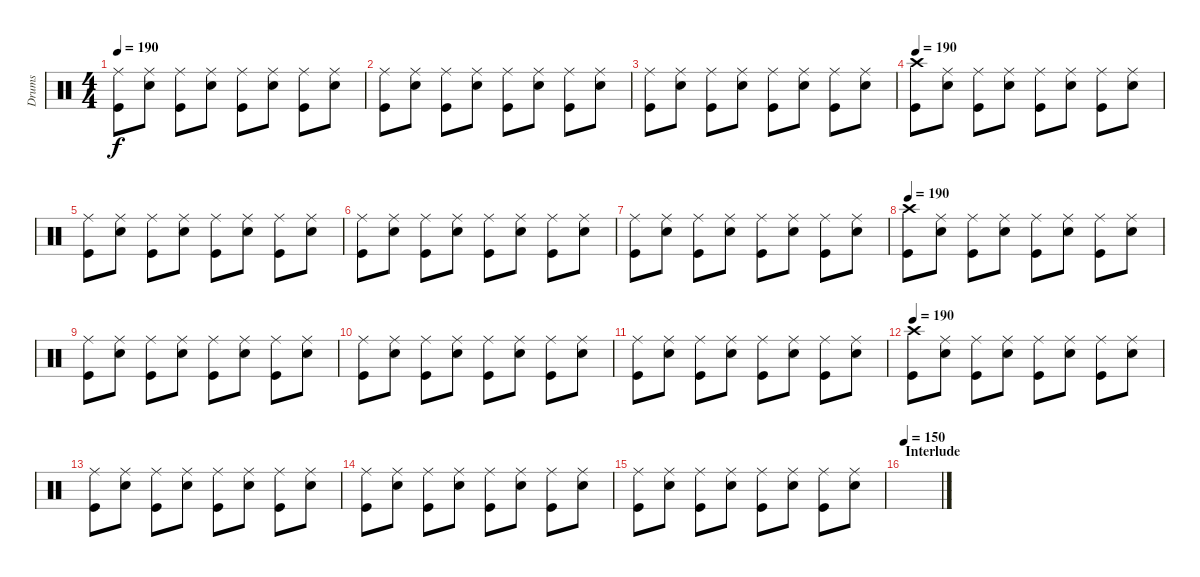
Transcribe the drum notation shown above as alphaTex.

\track ("Drums" "Drums") {instrument percussion}
\staff {score}
\articulation defaults
\ts (4 4)
\tempo 190
\clef neutral
\ks c
("Ride (middle)" "Kick (hit)").8{dy f} ("Ride (middle)" "Snare (hit) 2").8 ("Ride (middle)" "Kick (hit)").8 ("Ride (middle)" "Snare (hit) 2").8 ("Ride (middle)" "Kick (hit)").8 ("Ride (middle)" "Snare (hit) 2").8 ("Ride (middle)" "Kick (hit)").8 ("Ride (middle)" "Snare (hit) 2").8 |
("Ride (middle)" "Kick (hit)").8 ("Ride (middle)" "Snare (hit) 2").8 ("Ride (middle)" "Kick (hit)").8 ("Ride (middle)" "Snare (hit) 2").8 ("Ride (middle)" "Kick (hit)").8 ("Ride (middle)" "Snare (hit) 2").8 ("Ride (middle)" "Kick (hit)").8 ("Ride (middle)" "Snare (hit) 2").8 |
("Ride (middle)" "Kick (hit)").8 ("Ride (middle)" "Snare (hit) 2").8 ("Ride (middle)" "Kick (hit)").8 ("Ride (middle)" "Snare (hit) 2").8 ("Ride (middle)" "Kick (hit)").8 ("Ride (middle)" "Snare (hit) 2").8 ("Ride (middle)" "Kick (hit)").8 ("Ride (middle)" "Snare (hit) 2").8 |
\tempo 190
("Crash high (hit)" "Kick (hit)").8 ("Ride (middle)" "Snare (hit) 2").8 ("Ride (middle)" "Kick (hit)").8 ("Ride (middle)" "Snare (hit) 2").8 ("Ride (middle)" "Kick (hit)").8 ("Ride (middle)" "Snare (hit) 2").8 ("Ride (middle)" "Kick (hit)").8 ("Ride (middle)" "Snare (hit) 2").8 |
("Ride (middle)" "Kick (hit)").8 ("Ride (middle)" "Snare (hit) 2").8 ("Ride (middle)" "Kick (hit)").8 ("Ride (middle)" "Snare (hit) 2").8 ("Ride (middle)" "Kick (hit)").8 ("Ride (middle)" "Snare (hit) 2").8 ("Ride (middle)" "Kick (hit)").8 ("Ride (middle)" "Snare (hit) 2").8 |
("Ride (middle)" "Kick (hit)").8 ("Ride (middle)" "Snare (hit) 2").8 ("Ride (middle)" "Kick (hit)").8 ("Ride (middle)" "Snare (hit) 2").8 ("Ride (middle)" "Kick (hit)").8 ("Ride (middle)" "Snare (hit) 2").8 ("Ride (middle)" "Kick (hit)").8 ("Ride (middle)" "Snare (hit) 2").8 |
("Ride (middle)" "Kick (hit)").8 ("Ride (middle)" "Snare (hit) 2").8 ("Ride (middle)" "Kick (hit)").8 ("Ride (middle)" "Snare (hit) 2").8 ("Ride (middle)" "Kick (hit)").8 ("Ride (middle)" "Snare (hit) 2").8 ("Ride (middle)" "Kick (hit)").8 ("Ride (middle)" "Snare (hit) 2").8 |
\tempo 190
("Crash high (hit)" "Kick (hit)").8 ("Ride (middle)" "Snare (hit) 2").8 ("Ride (middle)" "Kick (hit)").8 ("Ride (middle)" "Snare (hit) 2").8 ("Ride (middle)" "Kick (hit)").8 ("Ride (middle)" "Snare (hit) 2").8 ("Ride (middle)" "Kick (hit)").8 ("Ride (middle)" "Snare (hit) 2").8 |
("Ride (middle)" "Kick (hit)").8 ("Ride (middle)" "Snare (hit) 2").8 ("Ride (middle)" "Kick (hit)").8 ("Ride (middle)" "Snare (hit) 2").8 ("Ride (middle)" "Kick (hit)").8 ("Ride (middle)" "Snare (hit) 2").8 ("Ride (middle)" "Kick (hit)").8 ("Ride (middle)" "Snare (hit) 2").8 |
("Ride (middle)" "Kick (hit)").8 ("Ride (middle)" "Snare (hit) 2").8 ("Ride (middle)" "Kick (hit)").8 ("Ride (middle)" "Snare (hit) 2").8 ("Ride (middle)" "Kick (hit)").8 ("Ride (middle)" "Snare (hit) 2").8 ("Ride (middle)" "Kick (hit)").8 ("Ride (middle)" "Snare (hit) 2").8 |
("Ride (middle)" "Kick (hit)").8 ("Ride (middle)" "Snare (hit) 2").8 ("Ride (middle)" "Kick (hit)").8 ("Ride (middle)" "Snare (hit) 2").8 ("Ride (middle)" "Kick (hit)").8 ("Ride (middle)" "Snare (hit) 2").8 ("Ride (middle)" "Kick (hit)").8 ("Ride (middle)" "Snare (hit) 2").8 |
\tempo 190
("Crash high (hit)" "Kick (hit)").8 ("Ride (middle)" "Snare (hit) 2").8 ("Ride (middle)" "Kick (hit)").8 ("Ride (middle)" "Snare (hit) 2").8 ("Ride (middle)" "Kick (hit)").8 ("Ride (middle)" "Snare (hit) 2").8 ("Ride (middle)" "Kick (hit)").8 ("Ride (middle)" "Snare (hit) 2").8 |
("Ride (middle)" "Kick (hit)").8 ("Ride (middle)" "Snare (hit) 2").8 ("Ride (middle)" "Kick (hit)").8 ("Ride (middle)" "Snare (hit) 2").8 ("Ride (middle)" "Kick (hit)").8 ("Ride (middle)" "Snare (hit) 2").8 ("Ride (middle)" "Kick (hit)").8 ("Ride (middle)" "Snare (hit) 2").8 |
("Ride (middle)" "Kick (hit)").8 ("Ride (middle)" "Snare (hit) 2").8 ("Ride (middle)" "Kick (hit)").8 ("Ride (middle)" "Snare (hit) 2").8 ("Ride (middle)" "Kick (hit)").8 ("Ride (middle)" "Snare (hit) 2").8 ("Ride (middle)" "Kick (hit)").8 ("Ride (middle)" "Snare (hit) 2").8 |
("Ride (middle)" "Kick (hit)").8 ("Ride (middle)" "Snare (hit) 2").8 ("Ride (middle)" "Kick (hit)").8 ("Ride (middle)" "Snare (hit) 2").8 ("Ride (middle)" "Kick (hit)").8 ("Ride (middle)" "Snare (hit) 2").8 ("Ride (middle)" "Kick (hit)").8 ("Ride (middle)" "Snare (hit) 2").8 |
\section ("" "Interlude")
\tempo 150
